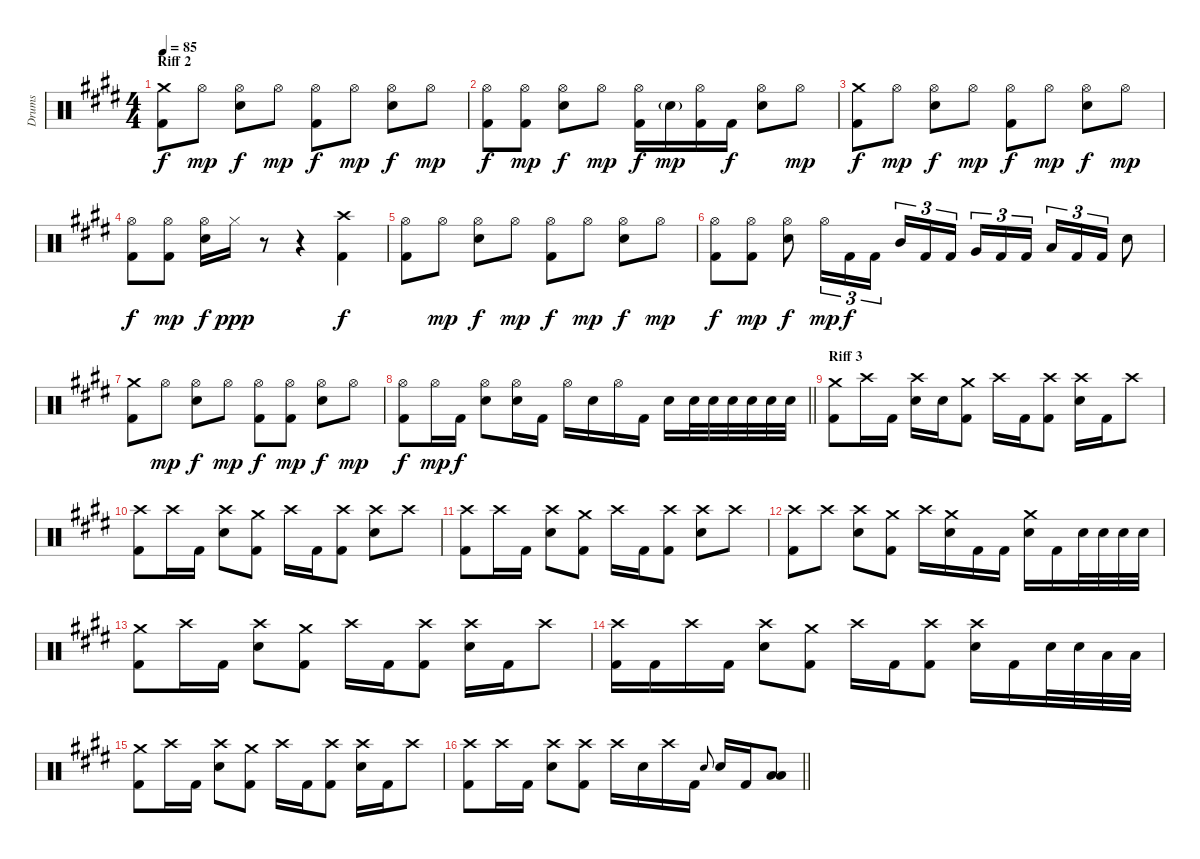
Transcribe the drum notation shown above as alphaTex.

\track ("Drums" "Drums") {instrument percussion}
\staff {score}
\articulation defaults
\ts (4 4)
\section ("" "Riff 2")
\tempo 85
\clef neutral
\ks e
("Kick (hit) 2" "Crash medium (hit)").8{dy f} "Hi-Hat (open)".8{dy mp} ("Hi-Hat (open)" "Electric Snare (hit)").8{dy f} "Hi-Hat (open)".8{dy mp} ("Hi-Hat (open)" "Kick (hit) 2").8{dy f} "Hi-Hat (open)".8{dy mp} ("Hi-Hat (open)" "Electric Snare (hit)").8{dy f} "Hi-Hat (open)".8{dy mp} |
("Hi-Hat (open)" "Kick (hit) 2").8{dy f} ("Hi-Hat (open)" "Kick (hit) 2").8{dy mp} ("Hi-Hat (open)" "Electric Snare (hit)").8{dy f} "Hi-Hat (open)".8{dy mp} ("Hi-Hat (open)" "Kick (hit) 2").16{dy f} "Electric Snare (hit)"{g}.16{dy mp} ("Hi-Hat (open)" "Kick (hit) 2").16 "Kick (hit) 2".16{dy f} ("Electric Snare (hit)" "Hi-Hat (open)").8 "Hi-Hat (open)".8{dy mp} |
("Kick (hit) 2" "Crash medium (hit)").8{dy f} "Hi-Hat (open)".8{dy mp} ("Hi-Hat (open)" "Electric Snare (hit)").8{dy f} "Hi-Hat (open)".8{dy mp} ("Hi-Hat (open)" "Kick (hit) 2").8{dy f} "Hi-Hat (open)".8{dy mp} ("Hi-Hat (open)" "Electric Snare (hit)").8{dy f} "Hi-Hat (open)".8{dy mp} |
("Hi-Hat (open)" "Kick (hit) 2").8{dy f} ("Hi-Hat (open)" "Kick (hit) 2").8{dy mp} ("Hi-Hat (open)" "Electric Snare (hit)").16{dy f} "Hi-Hat (closed)".16{dy ppp} r.8 r.4 ("Kick (hit) 2" "Crash high (hit)").4{dy f} |
("Kick (hit) 2" "Hi-Hat (open)").8 "Hi-Hat (open)".8{dy mp} ("Hi-Hat (open)" "Electric Snare (hit)").8{dy f} "Hi-Hat (open)".8{dy mp} ("Hi-Hat (open)" "Kick (hit) 2").8{dy f} "Hi-Hat (open)".8{dy mp} ("Hi-Hat (open)" "Electric Snare (hit)").8{dy f} "Hi-Hat (open)".8{dy mp} |
("Hi-Hat (open)" "Kick (hit) 2").8{dy f} ("Hi-Hat (open)" "Kick (hit) 2").8{dy mp} ("Hi-Hat (open)" "Electric Snare (hit)").8{dy f} "Hi-Hat (open)".16{tu (3 2) dy mp} "Kick (hit) 2".16{tu (3 2) dy f} "Kick (hit) 2".16{tu (3 2)} "Mid Tom (hit)".16{tu (3 2)} "Kick (hit) 2".16{tu (3 2)} "Kick (hit) 2".16{tu (3 2) beam splitsecondary} "Very Low Tom (hit)".16{tu (3 2)} "Kick (hit) 2".16{tu (3 2)} "Kick (hit) 2".16{tu (3 2)} "Low Floor Tom (hit)".16{tu (3 2)} "Kick (hit) 2".16{tu (3 2)} "Kick (hit) 2".16{tu (3 2)} "Electric Snare (hit)".8 |
("Kick (hit) 2" "Crash medium (hit)").8 "Hi-Hat (open)".8{dy mp} ("Hi-Hat (open)" "Electric Snare (hit)").8{dy f} "Hi-Hat (open)".8{dy mp} ("Hi-Hat (open)" "Kick (hit) 2").8{dy f} ("Hi-Hat (open)" "Kick (hit) 2").8{dy mp} ("Hi-Hat (open)" "Electric Snare (hit)").8{dy f} "Hi-Hat (open)".8{dy mp} |
\barLineRight lightlight
("Kick (hit) 2" "Hi-Hat (open)").8{dy f} "Hi-Hat (open)".16{dy mp} "Kick (hit) 2".16{dy f} ("Electric Snare (hit)" "Hi-Hat (open)").8 ("Electric Snare (hit)" "Hi-Hat (open)").16 "Kick (hit) 2".16 "Hi-Hat (open)".16 "Electric Snare (hit)".16 "Hi-Hat (open)".16 "Kick (hit) 2".16 "Electric Snare (hit)".16 "Electric Snare (hit)".32 "Electric Snare (hit)".32 "Electric Snare (hit)".32 "Electric Snare (hit)".32 "Electric Snare (hit)".32 "Electric Snare (hit)".32 |
\section ("" "Riff 3")
("Crash medium (hit)" "Kick (hit) 2").8 "Crash high (hit)".16 "Kick (hit) 2".16 ("Electric Snare (hit)" "Crash high (hit)").16 "Electric Snare (hit)".16 ("Kick (hit) 2" "Crash medium (hit)").8 "Crash high (hit)".16 "Kick (hit) 2".16 ("Kick (hit) 2" "Crash high (hit)").8 ("Electric Snare (hit)" "Crash high (hit)").16 "Kick (hit) 2".16 "Crash high (hit)".8 |
("Crash high (hit)" "Kick (hit) 2").8 "Crash high (hit)".16 "Kick (hit) 2".16 ("Electric Snare (hit)" "Crash high (hit)").8 ("Kick (hit) 2" "Crash medium (hit)").8 "Crash high (hit)".16 "Kick (hit) 2".16 ("Kick (hit) 2" "Crash high (hit)").8 ("Electric Snare (hit)" "Crash high (hit)").8 "Crash high (hit)".8 |
("Crash high (hit)" "Kick (hit) 2").8 "Crash high (hit)".16 "Kick (hit) 2".16 ("Electric Snare (hit)" "Crash high (hit)").8 ("Kick (hit) 2" "Crash medium (hit)").8 "Crash high (hit)".16 "Kick (hit) 2".16 ("Kick (hit) 2" "Crash high (hit)").8 ("Electric Snare (hit)" "Crash high (hit)").8 "Crash high (hit)".8 |
("Crash high (hit)" "Kick (hit) 2").8 "Crash high (hit)".8 ("Electric Snare (hit)" "Crash high (hit)").8 ("Kick (hit) 2" "Crash medium (hit)").8 "Crash high (hit)".16 ("Electric Snare (hit)" "Crash medium (hit)").16 "Kick (hit) 2".16 "Kick (hit) 2".16 ("Electric Snare (hit)" "Crash medium (hit)").16 "Kick (hit) 2".16 "Electric Snare (hit)".32 "Electric Snare (hit)".32 "Electric Snare (hit)".32 "Electric Snare (hit)".32 |
("Crash medium (hit)" "Kick (hit) 2").8 "Crash high (hit)".16 "Kick (hit) 2".16 ("Electric Snare (hit)" "Crash high (hit)").8 ("Kick (hit) 2" "Crash medium (hit)").8 "Crash high (hit)".16 "Kick (hit) 2".16 ("Kick (hit) 2" "Crash high (hit)").8 ("Electric Snare (hit)" "Crash high (hit)").16 "Kick (hit) 2".16 "Crash high (hit)".8 |
("Crash high (hit)" "Kick (hit) 2").16 "Kick (hit) 2".16 "Crash high (hit)".16 "Kick (hit) 2".16 ("Electric Snare (hit)" "Crash high (hit)").8 ("Kick (hit) 2" "Crash medium (hit)").8 "Crash high (hit)".16 "Kick (hit) 2".16 ("Kick (hit) 2" "Crash high (hit)").8 ("Electric Snare (hit)" "Crash high (hit)").16 "Kick (hit) 2".16 "Electric Snare (hit)".32 "Electric Snare (hit)".32 "Low Tom (hit)".32 "Low Tom (hit)".32 |
("Crash medium (hit)" "Kick (hit) 2").8 "Crash high (hit)".16 "Kick (hit) 2".16 ("Electric Snare (hit)" "Crash high (hit)").8 ("Kick (hit) 2" "Crash medium (hit)").8 "Crash high (hit)".16 "Kick (hit) 2".16 ("Kick (hit) 2" "Crash high (hit)").8 ("Electric Snare (hit)" "Crash high (hit)").16 "Kick (hit) 2".16 "Crash high (hit)".8 |
\barLineRight lightlight
("Crash high (hit)" "Kick (hit) 2").8 "Crash high (hit)".16 "Kick (hit) 2".16 ("Electric Snare (hit)" "Crash high (hit)").8 ("Kick (hit) 2" "Crash high (hit)").8 "Crash high (hit)".16 "Electric Snare (hit)".16 "Crash high (hit)".16 "Kick (hit) 2".16 "Electric Snare (hit)".8{gr onbeat} "Electric Snare (hit)".16 "Kick (hit) 2".16 ("Low Tom (hit)" "Low Floor Tom (hit)").8
